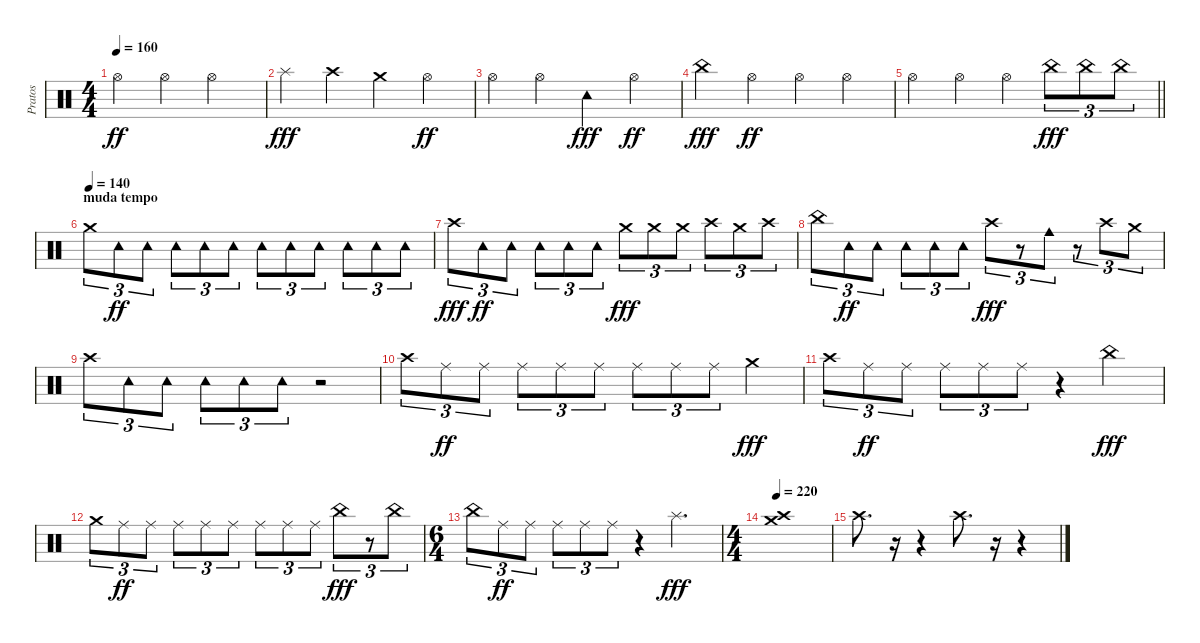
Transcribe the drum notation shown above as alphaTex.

\track ("Pratos" "Pratos") {instrument percussion}
\staff {score}
\articulation defaults
\ts (4 4)
\tempo 160
\clef neutral
\ks c "Hi-Hat (open)".4{dy ff} "Hi-Hat (open)".4 "Hi-Hat (open)".2
|
"Splash (hit)".4{dy fff} "Crash high (hit)".4 "Crash medium (hit)".4 "Hi-Hat (open)".4{dy ff} |
"Hi-Hat (open)".4 "Hi-Hat (open)".4 "Tambourine (hit)".4{dy fff} "Hi-Hat (open)".4{dy ff} |
"China (hit)".4{dy fff} "Hi-Hat (open)".4{dy ff} "Hi-Hat (open)".4 "Hi-Hat (open)".4 |
\barLineRight lightlight "Hi-Hat (open)".4 "Hi-Hat (open)".4 "Hi-Hat (open)".4 "China (hit)".8{tu (3 2) dy fff} "China (hit)".8{tu (3 2)} "China (hit)".8{tu (3 2)}
|
\section ("" "muda tempo")
\tempo (140)
"Crash medium (hit)".8{tu (3 2)} "Tambourine (hit)".8{tu (3 2) dy ff} "Tambourine (hit)".8{tu (3 2)} "Tambourine (hit)".8{tu (3 2)} "Tambourine (hit)".8{tu (3 2)} "Tambourine (hit)".8{tu (3 2)} "Tambourine (hit)".8{tu (3 2)} "Tambourine (hit)".8{tu (3 2)} "Tambourine (hit)".8{tu (3 2)} "Tambourine (hit)".8{tu (3 2)} "Tambourine (hit)".8{tu (3 2)} "Tambourine (hit)".8{tu (3 2)} |
"Crash high (hit)".8{tu (3 2) dy fff} "Tambourine (hit)".8{tu (3 2) dy ff} "Tambourine (hit)".8{tu (3 2)} "Tambourine (hit)".8{tu (3 2)} "Tambourine (hit)".8{tu (3 2)} "Tambourine (hit)".8{tu (3 2)} "Crash medium (hit)".8{tu (3 2) dy fff} "Crash medium (hit)".8{tu (3 2)} "Crash medium (hit)".8{tu (3 2)} "Crash high (hit)".8{tu (3 2)} "Crash medium (hit)".8{tu (3 2)} "Crash high (hit)".8{tu (3 2)} |
"China (hit)".8{tu (3 2)} "Tambourine (hit)".8{tu (3 2) dy ff} "Tambourine (hit)".8{tu (3 2)} "Tambourine (hit)".8{tu (3 2)} "Tambourine (hit)".8{tu (3 2)} "Tambourine (hit)".8{tu (3 2)} "Crash high (hit)".8{tu (3 2) dy fff} r.8{tu (3 2)} "Cowbell medium (hit)".8{tu (3 2)} r.8{tu (3 2)} "Crash high (hit)".8{tu (3 2)} "Crash medium (hit)".8{tu (3 2)} |
"Crash high (hit)".8{tu (3 2)} "Tambourine (hit)".8{tu (3 2)} "Tambourine (hit)".8{tu (3 2)} "Tambourine (hit)".8{tu (3 2)} "Tambourine (hit)".8{tu (3 2)} "Tambourine (hit)".8{tu (3 2)} r.2 |
"Crash high (hit)".8{tu (3 2)} "Ride (middle)".8{tu (3 2) dy ff} "Ride (middle)".8{tu (3 2)} "Ride (middle)".8{tu (3 2)} "Ride (middle)".8{tu (3 2)} "Ride (middle)".8{tu (3 2)} "Ride (middle)".8{tu (3 2)} "Ride (middle)".8{tu (3 2)} "Ride (middle)".8{tu (3 2)} "Crash medium (hit)".4{dy fff} |
"Crash high (hit)".8{tu (3 2)} "Ride (middle)".8{tu (3 2) dy ff} "Ride (middle)".8{tu (3 2)} "Ride (middle)".8{tu (3 2)} "Ride (middle)".8{tu (3 2)} "Ride (middle)".8{tu (3 2)} r.4 "China (hit)".4{dy fff} |
"Crash medium (hit)".8{tu (3 2)} "Ride (middle)".8{tu (3 2) dy ff} "Ride (middle)".8{tu (3 2)} "Ride (middle)".8{tu (3 2)} "Ride (middle)".8{tu (3 2)} "Ride (middle)".8{tu (3 2)} "Ride (middle)".8{tu (3 2)} "Ride (middle)".8{tu (3 2)} "Ride (middle)".8{tu (3 2)} "China (hit)".8{tu (3 2) dy fff} r.8{tu (3 2)} "China (hit)".8{tu (3 2)} |
\ts (6 4)
"China (hit)".8{tu (3 2)} "Ride (middle)".8{tu (3 2) dy ff} "Ride (middle)".8{tu (3 2)} "Ride (middle)".8{tu (3 2)} "Ride (middle)".8{tu (3 2)} "Ride (middle)".8{tu (3 2)} r.4 "Splash (hit)".2{d dy fff} |
\ts (4 4)
\tempo 220
("Crash medium (hit)" "Crash high (hit)").1 |
"Crash high (hit)".8{d} r.16 r.4 "Crash high (hit)".8{d} r.16 r.4
